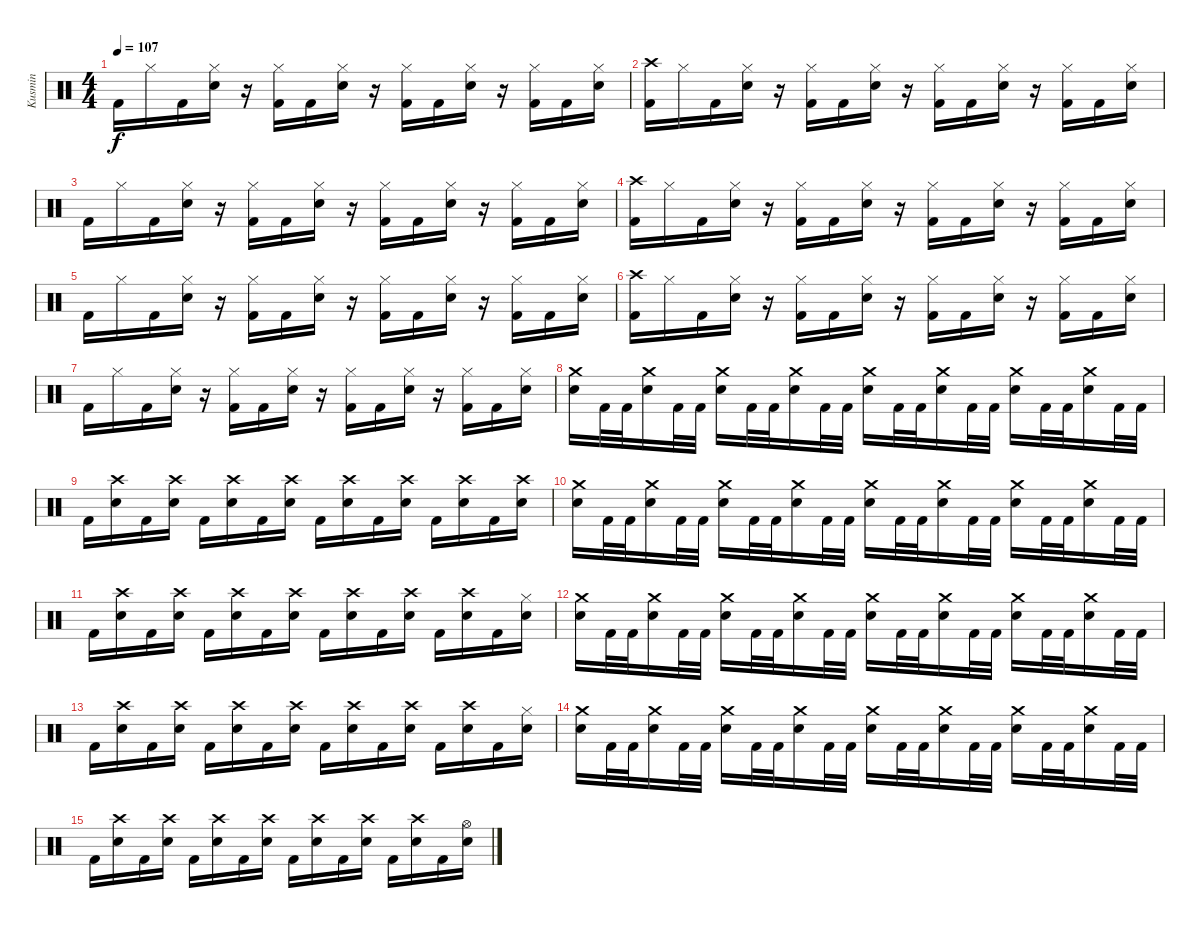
\track ("Kusmin" "Kusmin") {instrument percussion}
\staff {score}
\articulation defaults
\ts (4 4)
\tempo 107
\clef neutral
\ks c "Kick (hit) 2".16{dy f} "Hi-Hat (closed)".16 "Kick (hit) 2".16
("Hi-Hat (closed)" "Snare (hit) 2").16 r.16 ("Hi-Hat (closed)" "Kick (hit) 2").16 "Kick (hit) 2".16 ("Hi-Hat (closed)" "Snare (hit) 2").16 r.16 ("Hi-Hat (closed)" "Kick (hit) 2").16 "Kick (hit) 2".16 ("Hi-Hat (closed)" "Snare (hit) 2").16 r.16 ("Hi-Hat (closed)" "Kick (hit) 2").16 "Kick (hit) 2".16 ("Hi-Hat (closed)" "Snare (hit) 2").16 |
("Crash high (hit)" "Kick (hit) 2").16 "Hi-Hat (closed)".16 "Kick (hit) 2".16 ("Hi-Hat (closed)" "Snare (hit) 2").16 r.16 ("Hi-Hat (closed)" "Kick (hit) 2").16 "Kick (hit) 2".16 ("Hi-Hat (closed)" "Snare (hit) 2").16 r.16 ("Hi-Hat (closed)" "Kick (hit) 2").16 "Kick (hit) 2".16 ("Hi-Hat (closed)" "Snare (hit) 2").16 r.16 ("Hi-Hat (closed)" "Kick (hit) 2").16 "Kick (hit) 2".16 ("Hi-Hat (closed)" "Snare (hit) 2").16 |
"Kick (hit) 2".16 "Hi-Hat (closed)".16 "Kick (hit) 2".16 ("Hi-Hat (closed)" "Snare (hit) 2").16 r.16 ("Hi-Hat (closed)" "Kick (hit) 2").16 "Kick (hit) 2".16 ("Hi-Hat (closed)" "Snare (hit) 2").16 r.16 ("Hi-Hat (closed)" "Kick (hit) 2").16 "Kick (hit) 2".16 ("Hi-Hat (closed)" "Snare (hit) 2").16 r.16 ("Hi-Hat (closed)" "Kick (hit) 2").16 "Kick (hit) 2".16 ("Hi-Hat (closed)" "Snare (hit) 2").16 |
("Crash high (hit)" "Kick (hit) 2").16 "Hi-Hat (closed)".16 "Kick (hit) 2".16 ("Hi-Hat (closed)" "Snare (hit) 2").16 r.16 ("Hi-Hat (closed)" "Kick (hit) 2").16 "Kick (hit) 2".16 ("Hi-Hat (closed)" "Snare (hit) 2").16 r.16 ("Hi-Hat (closed)" "Kick (hit) 2").16 "Kick (hit) 2".16 ("Hi-Hat (closed)" "Snare (hit) 2").16 r.16 ("Hi-Hat (closed)" "Kick (hit) 2").16 "Kick (hit) 2".16 ("Hi-Hat (closed)" "Snare (hit) 2").16 |
"Kick (hit) 2".16 "Hi-Hat (closed)".16 "Kick (hit) 2".16 ("Hi-Hat (closed)" "Snare (hit) 2").16 r.16 ("Hi-Hat (closed)" "Kick (hit) 2").16 "Kick (hit) 2".16 ("Hi-Hat (closed)" "Snare (hit) 2").16 r.16 ("Hi-Hat (closed)" "Kick (hit) 2").16 "Kick (hit) 2".16 ("Hi-Hat (closed)" "Snare (hit) 2").16 r.16 ("Hi-Hat (closed)" "Kick (hit) 2").16 "Kick (hit) 2".16 ("Hi-Hat (closed)" "Snare (hit) 2").16 |
("Crash high (hit)" "Kick (hit) 2").16 "Hi-Hat (closed)".16 "Kick (hit) 2".16 ("Hi-Hat (closed)" "Snare (hit) 2").16 r.16 ("Hi-Hat (closed)" "Kick (hit) 2").16 "Kick (hit) 2".16 ("Hi-Hat (closed)" "Snare (hit) 2").16 r.16 ("Hi-Hat (closed)" "Kick (hit) 2").16 "Kick (hit) 2".16 ("Hi-Hat (closed)" "Snare (hit) 2").16 r.16 ("Hi-Hat (closed)" "Kick (hit) 2").16 "Kick (hit) 2".16 ("Hi-Hat (closed)" "Snare (hit) 2").16 |
"Kick (hit) 2".16 "Hi-Hat (closed)".16 "Kick (hit) 2".16 ("Hi-Hat (closed)" "Snare (hit) 2").16 r.16 ("Hi-Hat (closed)" "Kick (hit) 2").16 "Kick (hit) 2".16 ("Hi-Hat (closed)" "Snare (hit) 2").16 r.16 ("Hi-Hat (closed)" "Kick (hit) 2").16 "Kick (hit) 2".16 ("Hi-Hat (closed)" "Snare (hit) 2").16 r.16 ("Hi-Hat (closed)" "Kick (hit) 2").16 "Kick (hit) 2".16 ("Hi-Hat (closed)" "Snare (hit) 2").16 |
("Crash medium (hit)" "Snare (hit) 2").16 "Kick (hit) 2".32 "Kick (hit) 2".32 ("Crash medium (hit)" "Snare (hit) 2").16 "Kick (hit) 2".32 "Kick (hit) 2".32 ("Crash medium (hit)" "Snare (hit) 2").16 "Kick (hit) 2".32 "Kick (hit) 2".32 ("Crash medium (hit)" "Snare (hit) 2").16 "Kick (hit) 2".32 "Kick (hit) 2".32 ("Crash medium (hit)" "Snare (hit) 2").16 "Kick (hit) 2".32 "Kick (hit) 2".32 ("Crash medium (hit)" "Snare (hit) 2").16 "Kick (hit) 2".32 "Kick (hit) 2".32 ("Crash medium (hit)" "Snare (hit) 2").16 "Kick (hit) 2".32 "Kick (hit) 2".32 ("Crash medium (hit)" "Snare (hit) 2").16 "Kick (hit) 2".32 "Kick (hit) 2".32 |
"Kick (hit) 2".16 ("Crash high (hit)" "Snare (hit) 2").16 "Kick (hit) 2".16 ("Crash high (hit)" "Snare (hit) 2").16 "Kick (hit) 2".16 ("Crash high (hit)" "Snare (hit) 2").16 "Kick (hit) 2".16 ("Crash high (hit)" "Snare (hit) 2").16 "Kick (hit) 2".16 ("Crash high (hit)" "Snare (hit) 2").16 "Kick (hit) 2".16 ("Crash high (hit)" "Snare (hit) 2").16 "Kick (hit) 2".16 ("Crash high (hit)" "Snare (hit) 2").16 "Kick (hit) 2".16 ("Crash high (hit)" "Snare (hit) 2").16 |
("Crash medium (hit)" "Snare (hit) 2").16 "Kick (hit) 2".32 "Kick (hit) 2".32 ("Crash medium (hit)" "Snare (hit) 2").16 "Kick (hit) 2".32 "Kick (hit) 2".32 ("Crash medium (hit)" "Snare (hit) 2").16 "Kick (hit) 2".32 "Kick (hit) 2".32 ("Crash medium (hit)" "Snare (hit) 2").16 "Kick (hit) 2".32 "Kick (hit) 2".32 ("Crash medium (hit)" "Snare (hit) 2").16 "Kick (hit) 2".32 "Kick (hit) 2".32 ("Crash medium (hit)" "Snare (hit) 2").16 "Kick (hit) 2".32 "Kick (hit) 2".32 ("Crash medium (hit)" "Snare (hit) 2").16 "Kick (hit) 2".32 "Kick (hit) 2".32 ("Crash medium (hit)" "Snare (hit) 2").16 "Kick (hit) 2".32 "Kick (hit) 2".32 |
"Kick (hit) 2".16 ("Crash high (hit)" "Snare (hit) 2").16 "Kick (hit) 2".16 ("Crash high (hit)" "Snare (hit) 2").16 "Kick (hit) 2".16 ("Crash high (hit)" "Snare (hit) 2").16 "Kick (hit) 2".16 ("Crash high (hit)" "Snare (hit) 2").16 "Kick (hit) 2".16 ("Crash high (hit)" "Snare (hit) 2").16 "Kick (hit) 2".16 ("Crash high (hit)" "Snare (hit) 2").16 "Kick (hit) 2".16 ("Crash high (hit)" "Snare (hit) 2").16 "Kick (hit) 2".16 ("Hi-Hat (closed)" "Snare (hit) 2").16 |
("Crash medium (hit)" "Snare (hit) 2").16 "Kick (hit) 2".32 "Kick (hit) 2".32 ("Crash medium (hit)" "Snare (hit) 2").16 "Kick (hit) 2".32 "Kick (hit) 2".32 ("Crash medium (hit)" "Snare (hit) 2").16 "Kick (hit) 2".32 "Kick (hit) 2".32 ("Crash medium (hit)" "Snare (hit) 2").16 "Kick (hit) 2".32 "Kick (hit) 2".32 ("Crash medium (hit)" "Snare (hit) 2").16 "Kick (hit) 2".32 "Kick (hit) 2".32 ("Crash medium (hit)" "Snare (hit) 2").16 "Kick (hit) 2".32 "Kick (hit) 2".32 ("Crash medium (hit)" "Snare (hit) 2").16 "Kick (hit) 2".32 "Kick (hit) 2".32 ("Crash medium (hit)" "Snare (hit) 2").16 "Kick (hit) 2".32 "Kick (hit) 2".32 |
"Kick (hit) 2".16 ("Crash high (hit)" "Snare (hit) 2").16 "Kick (hit) 2".16 ("Crash high (hit)" "Snare (hit) 2").16 "Kick (hit) 2".16 ("Crash high (hit)" "Snare (hit) 2").16 "Kick (hit) 2".16 ("Crash high (hit)" "Snare (hit) 2").16 "Kick (hit) 2".16 ("Crash high (hit)" "Snare (hit) 2").16 "Kick (hit) 2".16 ("Crash high (hit)" "Snare (hit) 2").16 "Kick (hit) 2".16 ("Crash high (hit)" "Snare (hit) 2").16 "Kick (hit) 2".16 ("Hi-Hat (closed)" "Snare (hit) 2").16 |
("Crash medium (hit)" "Snare (hit) 2").16 "Kick (hit) 2".32 "Kick (hit) 2".32 ("Crash medium (hit)" "Snare (hit) 2").16 "Kick (hit) 2".32 "Kick (hit) 2".32 ("Crash medium (hit)" "Snare (hit) 2").16 "Kick (hit) 2".32 "Kick (hit) 2".32 ("Crash medium (hit)" "Snare (hit) 2").16 "Kick (hit) 2".32 "Kick (hit) 2".32 ("Crash medium (hit)" "Snare (hit) 2").16 "Kick (hit) 2".32 "Kick (hit) 2".32 ("Crash medium (hit)" "Snare (hit) 2").16 "Kick (hit) 2".32 "Kick (hit) 2".32 ("Crash medium (hit)" "Snare (hit) 2").16 "Kick (hit) 2".32 "Kick (hit) 2".32 ("Crash medium (hit)" "Snare (hit) 2").16 "Kick (hit) 2".32 "Kick (hit) 2".32 |
"Kick (hit) 2".16 ("Crash high (hit)" "Snare (hit) 2").16 "Kick (hit) 2".16 ("Crash high (hit)" "Snare (hit) 2").16 "Kick (hit) 2".16 ("Crash high (hit)" "Snare (hit) 2").16 "Kick (hit) 2".16 ("Crash high (hit)" "Snare (hit) 2").16 "Kick (hit) 2".16 ("Crash high (hit)" "Snare (hit) 2").16 "Kick (hit) 2".16 ("Crash high (hit)" "Snare (hit) 2").16 "Kick (hit) 2".16 ("Crash high (hit)" "Snare (hit) 2").16 "Kick (hit) 2".16 ("Hi-Hat (open)" "Snare (hit) 2").16
